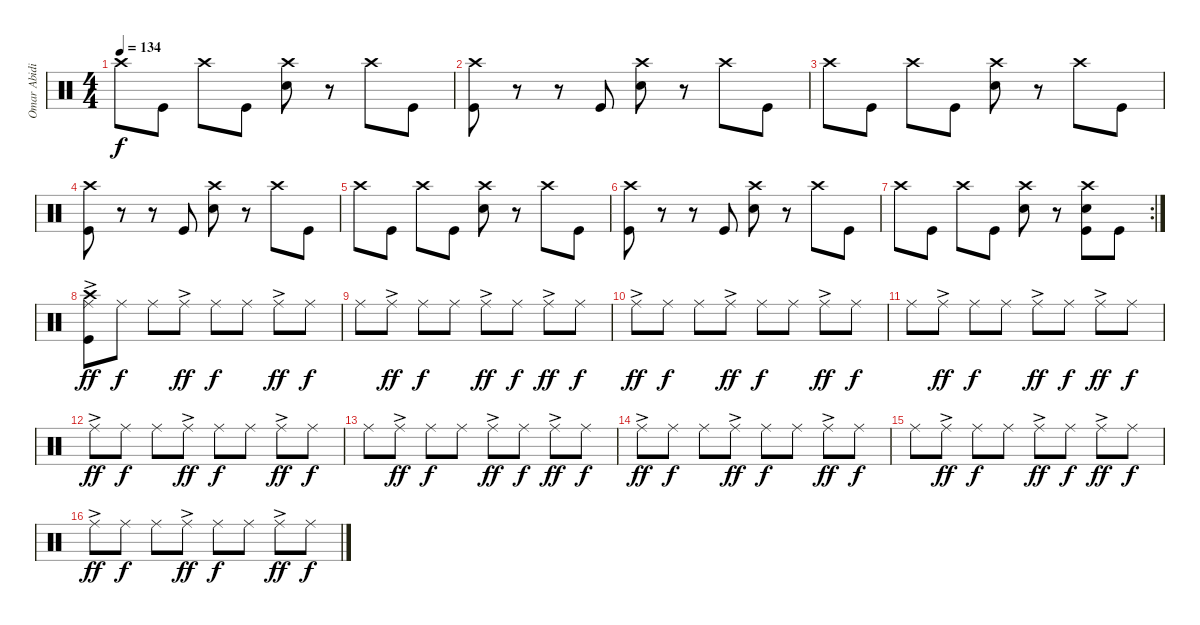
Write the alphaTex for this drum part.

\track ("Omar Abidi" "Omar Abidi") {instrument percussion}
\staff {score}
\articulation defaults
\ts (4 4)
\tempo 134
\clef neutral
\ks c "Crash high (hit)".8{dy f} "Kick (hit)".8 "Crash high (hit)".8 "Kick (hit)".8
("Crash high (hit)" "Snare (hit) 2").8 r.8 "Crash high (hit)".8 "Kick (hit)".8 |
("Crash high (hit)" "Kick (hit)").8 r.8 r.8 "Kick (hit)".8 ("Crash high (hit)" "Snare (hit) 2").8 r.8 "Crash high (hit)".8 "Kick (hit)".8 |
"Crash high (hit)".8 "Kick (hit)".8 "Crash high (hit)".8 "Kick (hit)".8 ("Crash high (hit)" "Snare (hit) 2").8 r.8 "Crash high (hit)".8 "Kick (hit)".8 |
("Crash high (hit)" "Kick (hit)").8 r.8 r.8 "Kick (hit)".8 ("Crash high (hit)" "Snare (hit) 2").8 r.8 "Crash high (hit)".8 "Kick (hit)".8 |
"Crash high (hit)".8 "Kick (hit)".8 "Crash high (hit)".8 "Kick (hit)".8 ("Crash high (hit)" "Snare (hit) 2").8 r.8 "Crash high (hit)".8 "Kick (hit)".8 |
("Crash high (hit)" "Kick (hit)").8 r.8 r.8 "Kick (hit)".8 ("Crash high (hit)" "Snare (hit) 2").8 r.8 "Crash high (hit)".8 "Kick (hit)".8 |
\rc 2 "Crash high (hit)".8 "Kick (hit)".8 "Crash high (hit)".8 "Kick (hit)".8
("Crash high (hit)" "Snare (hit) 2").8 r.8 ("Crash high (hit)" "Snare (hit) 2" "Kick (hit)").8 "Kick (hit)".8 |
("Crash high (hit)" "Ride (middle)"{ac} "Kick (hit)").8{dy ff} "Ride (middle)".8{dy f} "Ride (middle)".8 "Ride (middle)"{ac}.8{dy ff} "Ride (middle)".8{dy f} "Ride (middle)".8 "Ride (middle)"{ac}.8{dy ff} "Ride (middle)".8{dy f} |
"Ride (middle)".8 "Ride (middle)"{ac}.8{dy ff} "Ride (middle)".8{dy f} "Ride (middle)".8 "Ride (middle)"{ac}.8{dy ff} "Ride (middle)".8{dy f} "Ride (middle)"{ac}.8{dy ff} "Ride (middle)".8{dy f} |
"Ride (middle)"{ac}.8{dy ff} "Ride (middle)".8{dy f} "Ride (middle)".8 "Ride (middle)"{ac}.8{dy ff} "Ride (middle)".8{dy f} "Ride (middle)".8 "Ride (middle)"{ac}.8{dy ff} "Ride (middle)".8{dy f} |
"Ride (middle)".8 "Ride (middle)"{ac}.8{dy ff} "Ride (middle)".8{dy f} "Ride (middle)".8 "Ride (middle)"{ac}.8{dy ff} "Ride (middle)".8{dy f} "Ride (middle)"{ac}.8{dy ff} "Ride (middle)".8{dy f} |
"Ride (middle)"{ac}.8{dy ff} "Ride (middle)".8{dy f} "Ride (middle)".8 "Ride (middle)"{ac}.8{dy ff} "Ride (middle)".8{dy f} "Ride (middle)".8 "Ride (middle)"{ac}.8{dy ff} "Ride (middle)".8{dy f} |
"Ride (middle)".8 "Ride (middle)"{ac}.8{dy ff} "Ride (middle)".8{dy f} "Ride (middle)".8 "Ride (middle)"{ac}.8{dy ff} "Ride (middle)".8{dy f} "Ride (middle)"{ac}.8{dy ff} "Ride (middle)".8{dy f} |
"Ride (middle)"{ac}.8{dy ff} "Ride (middle)".8{dy f} "Ride (middle)".8 "Ride (middle)"{ac}.8{dy ff} "Ride (middle)".8{dy f} "Ride (middle)".8 "Ride (middle)"{ac}.8{dy ff} "Ride (middle)".8{dy f} |
"Ride (middle)".8 "Ride (middle)"{ac}.8{dy ff} "Ride (middle)".8{dy f} "Ride (middle)".8 "Ride (middle)"{ac}.8{dy ff} "Ride (middle)".8{dy f} "Ride (middle)"{ac}.8{dy ff} "Ride (middle)".8{dy f} |
"Ride (middle)"{ac}.8{dy ff} "Ride (middle)".8{dy f} "Ride (middle)".8 "Ride (middle)"{ac}.8{dy ff} "Ride (middle)".8{dy f} "Ride (middle)".8 "Ride (middle)"{ac}.8{dy ff} "Ride (middle)".8{dy f}
